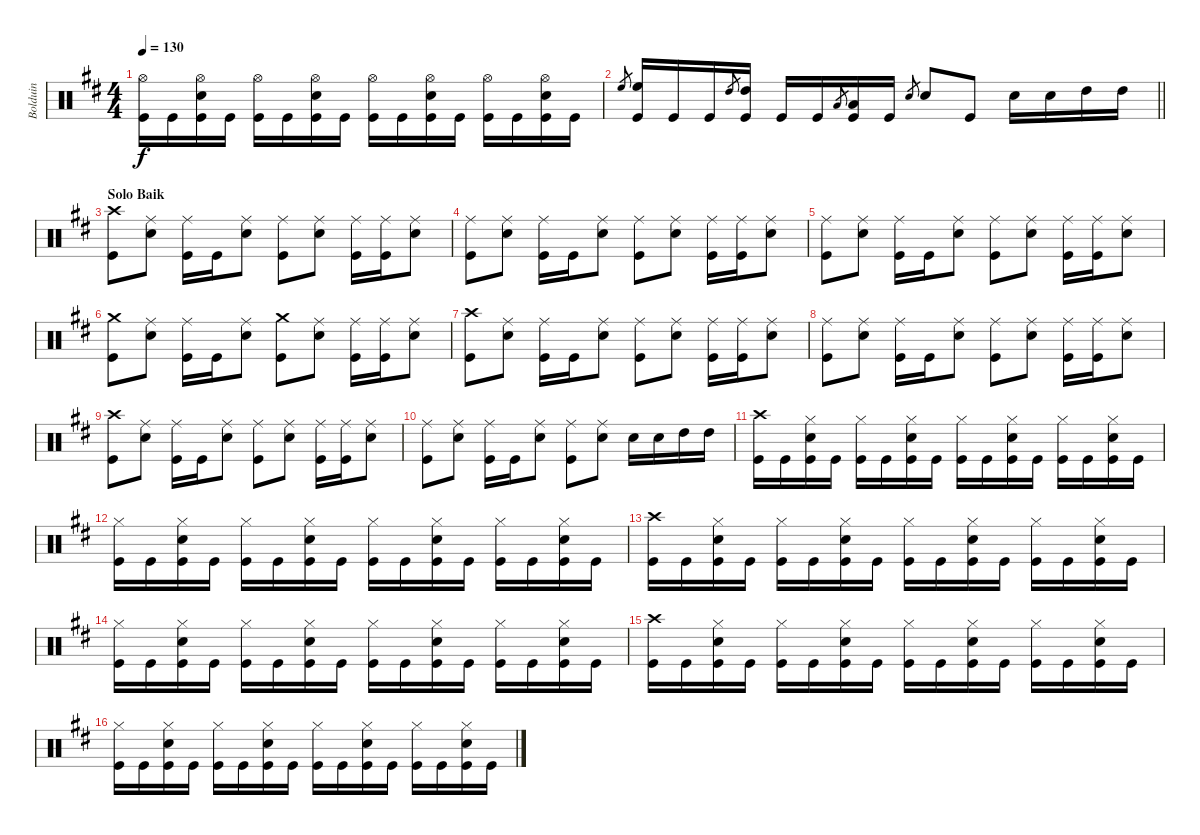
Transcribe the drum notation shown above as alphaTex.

\track ("Bolduin" "Bolduin") {instrument percussion}
\staff {score}
\articulation defaults
\ts (4 4)
\tempo 130
\clef neutral
\ks bminor
("Hi-Hat (open)" "Kick (hit)").16{dy f} "Kick (hit)".16 ("Hi-Hat (open)" "Kick (hit)" "Snare (hit) 2").16 "Kick (hit)".16 ("Hi-Hat (open)" "Kick (hit)").16 "Kick (hit)".16 ("Hi-Hat (open)" "Kick (hit)" "Snare (hit) 2").16 "Kick (hit)".16 ("Hi-Hat (open)" "Kick (hit)").16 "Kick (hit)".16 ("Hi-Hat (open)" "Kick (hit)" "Snare (hit) 2").16 "Kick (hit)".16 ("Hi-Hat (open)" "Kick (hit)").16 "Kick (hit)".16 ("Hi-Hat (open)" "Kick (hit)" "Snare (hit) 2").16 "Kick (hit)".16 |
\barLineRight lightlight "High Floor Tom (hit)".8{gr}
("High Floor Tom (hit)" "Kick (hit)").16 "Kick (hit)".16 "Kick (hit)".16 "High Tom (hit)".8{gr} ("High Tom (hit)" "Kick (hit)").16 "Kick (hit)".16 "Kick (hit)".16 "Low Tom (hit)".8{gr} ("Low Tom (hit)" "Kick (hit)").16 "Kick (hit)".16 "Snare (hit) 2".8{gr} "Snare (hit) 2".8 "Kick (hit)".8 "Snare (hit) 2".16 "Snare (hit) 2".16 "High Tom (hit)".16 "High Tom (hit)".16 |
\section ("" "Solo Baik")
("Crash high (hit)" "Kick (hit)").8 ("Ride (middle)" "Snare (hit) 2").8 ("Ride (middle)" "Kick (hit)").16 "Kick (hit)".16 ("Ride (middle)" "Snare (hit) 2").8 ("Ride (middle)" "Kick (hit)").8 ("Ride (middle)" "Snare (hit) 2").8 ("Ride (middle)" "Kick (hit)").16 ("Ride (middle)" "Kick (hit)").16 ("Ride (middle)" "Snare (hit) 2").8 |
("Ride (middle)" "Kick (hit)").8 ("Ride (middle)" "Snare (hit) 2").8 ("Ride (middle)" "Kick (hit)").16 "Kick (hit)".16 ("Ride (middle)" "Snare (hit) 2").8 ("Ride (middle)" "Kick (hit)").8 ("Ride (middle)" "Snare (hit) 2").8 ("Ride (middle)" "Kick (hit)").16 ("Ride (middle)" "Kick (hit)").16 ("Ride (middle)" "Snare (hit) 2").8 |
("Ride (middle)" "Kick (hit)").8 ("Ride (middle)" "Snare (hit) 2").8 ("Ride (middle)" "Kick (hit)").16 "Kick (hit)".16 ("Ride (middle)" "Snare (hit) 2").8 ("Ride (middle)" "Kick (hit)").8 ("Ride (middle)" "Snare (hit) 2").8 ("Ride (middle)" "Kick (hit)").16 ("Ride (middle)" "Kick (hit)").16 ("Ride (middle)" "Snare (hit) 2").8 |
("Crash medium (hit)" "Kick (hit)").8 ("Ride (middle)" "Snare (hit) 2").8 ("Ride (middle)" "Kick (hit)").16 "Kick (hit)".16 ("Ride (middle)" "Snare (hit) 2").8 ("Crash medium (hit)" "Kick (hit)").8 ("Ride (middle)" "Snare (hit) 2").8 ("Ride (middle)" "Kick (hit)").16 ("Ride (middle)" "Kick (hit)").16 ("Ride (middle)" "Snare (hit) 2").8 |
("Crash high (hit)" "Kick (hit)").8 ("Ride (middle)" "Snare (hit) 2").8 ("Ride (middle)" "Kick (hit)").16 "Kick (hit)".16 ("Ride (middle)" "Snare (hit) 2").8 ("Ride (middle)" "Kick (hit)").8 ("Ride (middle)" "Snare (hit) 2").8 ("Ride (middle)" "Kick (hit)").16 ("Ride (middle)" "Kick (hit)").16 ("Ride (middle)" "Snare (hit) 2").8 |
("Ride (middle)" "Kick (hit)").8 ("Ride (middle)" "Snare (hit) 2").8 ("Ride (middle)" "Kick (hit)").16 "Kick (hit)".16 ("Ride (middle)" "Snare (hit) 2").8 ("Ride (middle)" "Kick (hit)").8 ("Ride (middle)" "Snare (hit) 2").8 ("Ride (middle)" "Kick (hit)").16 ("Ride (middle)" "Kick (hit)").16 ("Ride (middle)" "Snare (hit) 2").8 |
("Crash high (hit)" "Kick (hit)").8 ("Ride (middle)" "Snare (hit) 2").8 ("Ride (middle)" "Kick (hit)").16 "Kick (hit)".16 ("Ride (middle)" "Snare (hit) 2").8 ("Ride (middle)" "Kick (hit)").8 ("Ride (middle)" "Snare (hit) 2").8 ("Ride (middle)" "Kick (hit)").16 ("Ride (middle)" "Kick (hit)").16 ("Ride (middle)" "Snare (hit) 2").8 |
("Ride (middle)" "Kick (hit)").8 ("Ride (middle)" "Snare (hit) 2").8 ("Ride (middle)" "Kick (hit)").16 "Kick (hit)".16 ("Ride (middle)" "Snare (hit) 2").8 ("Ride (middle)" "Kick (hit)").8 ("Ride (middle)" "Snare (hit) 2").8 "Snare (hit) 2".16 "Snare (hit) 2".16 "High Tom (hit)".16 "High Tom (hit)".16 |
("Crash high (hit)" "Kick (hit)").16 "Kick (hit)".16 ("Hi-Hat (closed)" "Kick (hit)" "Snare (hit) 2").16 "Kick (hit)".16 ("Hi-Hat (closed)" "Kick (hit)").16 "Kick (hit)".16 ("Hi-Hat (closed)" "Kick (hit)" "Snare (hit) 2").16 "Kick (hit)".16 ("Hi-Hat (closed)" "Kick (hit)").16 "Kick (hit)".16 ("Hi-Hat (closed)" "Kick (hit)" "Snare (hit) 2").16 "Kick (hit)".16 ("Hi-Hat (closed)" "Kick (hit)").16 "Kick (hit)".16 ("Hi-Hat (closed)" "Kick (hit)" "Snare (hit) 2").16 "Kick (hit)".16 |
("Hi-Hat (closed)" "Kick (hit)").16 "Kick (hit)".16 ("Hi-Hat (closed)" "Kick (hit)" "Snare (hit) 2").16 "Kick (hit)".16 ("Hi-Hat (closed)" "Kick (hit)").16 "Kick (hit)".16 ("Hi-Hat (closed)" "Kick (hit)" "Snare (hit) 2").16 "Kick (hit)".16 ("Hi-Hat (closed)" "Kick (hit)").16 "Kick (hit)".16 ("Hi-Hat (closed)" "Kick (hit)" "Snare (hit) 2").16 "Kick (hit)".16 ("Hi-Hat (closed)" "Kick (hit)").16 "Kick (hit)".16 ("Hi-Hat (closed)" "Kick (hit)" "Snare (hit) 2").16 "Kick (hit)".16 |
("Crash high (hit)" "Kick (hit)").16 "Kick (hit)".16 ("Hi-Hat (closed)" "Kick (hit)" "Snare (hit) 2").16 "Kick (hit)".16 ("Hi-Hat (closed)" "Kick (hit)").16 "Kick (hit)".16 ("Hi-Hat (closed)" "Kick (hit)" "Snare (hit) 2").16 "Kick (hit)".16 ("Hi-Hat (closed)" "Kick (hit)").16 "Kick (hit)".16 ("Hi-Hat (closed)" "Kick (hit)" "Snare (hit) 2").16 "Kick (hit)".16 ("Hi-Hat (closed)" "Kick (hit)").16 "Kick (hit)".16 ("Hi-Hat (closed)" "Kick (hit)" "Snare (hit) 2").16 "Kick (hit)".16 |
("Hi-Hat (closed)" "Kick (hit)").16 "Kick (hit)".16 ("Hi-Hat (closed)" "Kick (hit)" "Snare (hit) 2").16 "Kick (hit)".16 ("Hi-Hat (closed)" "Kick (hit)").16 "Kick (hit)".16 ("Hi-Hat (closed)" "Kick (hit)" "Snare (hit) 2").16 "Kick (hit)".16 ("Hi-Hat (closed)" "Kick (hit)").16 "Kick (hit)".16 ("Hi-Hat (closed)" "Kick (hit)" "Snare (hit) 2").16 "Kick (hit)".16 ("Hi-Hat (closed)" "Kick (hit)").16 "Kick (hit)".16 ("Hi-Hat (closed)" "Kick (hit)" "Snare (hit) 2").16 "Kick (hit)".16 |
("Crash high (hit)" "Kick (hit)").16 "Kick (hit)".16 ("Hi-Hat (closed)" "Kick (hit)" "Snare (hit) 2").16 "Kick (hit)".16 ("Hi-Hat (closed)" "Kick (hit)").16 "Kick (hit)".16 ("Hi-Hat (closed)" "Kick (hit)" "Snare (hit) 2").16 "Kick (hit)".16 ("Hi-Hat (closed)" "Kick (hit)").16 "Kick (hit)".16 ("Hi-Hat (closed)" "Kick (hit)" "Snare (hit) 2").16 "Kick (hit)".16 ("Hi-Hat (closed)" "Kick (hit)").16 "Kick (hit)".16 ("Hi-Hat (closed)" "Kick (hit)" "Snare (hit) 2").16 "Kick (hit)".16 |
("Hi-Hat (closed)" "Kick (hit)").16 "Kick (hit)".16 ("Hi-Hat (closed)" "Kick (hit)" "Snare (hit) 2").16 "Kick (hit)".16 ("Hi-Hat (closed)" "Kick (hit)").16 "Kick (hit)".16 ("Hi-Hat (closed)" "Kick (hit)" "Snare (hit) 2").16 "Kick (hit)".16 ("Hi-Hat (closed)" "Kick (hit)").16 "Kick (hit)".16 ("Hi-Hat (closed)" "Kick (hit)" "Snare (hit) 2").16 "Kick (hit)".16 ("Hi-Hat (closed)" "Kick (hit)").16 "Kick (hit)".16 ("Hi-Hat (closed)" "Kick (hit)" "Snare (hit) 2").16 "Kick (hit)".16
